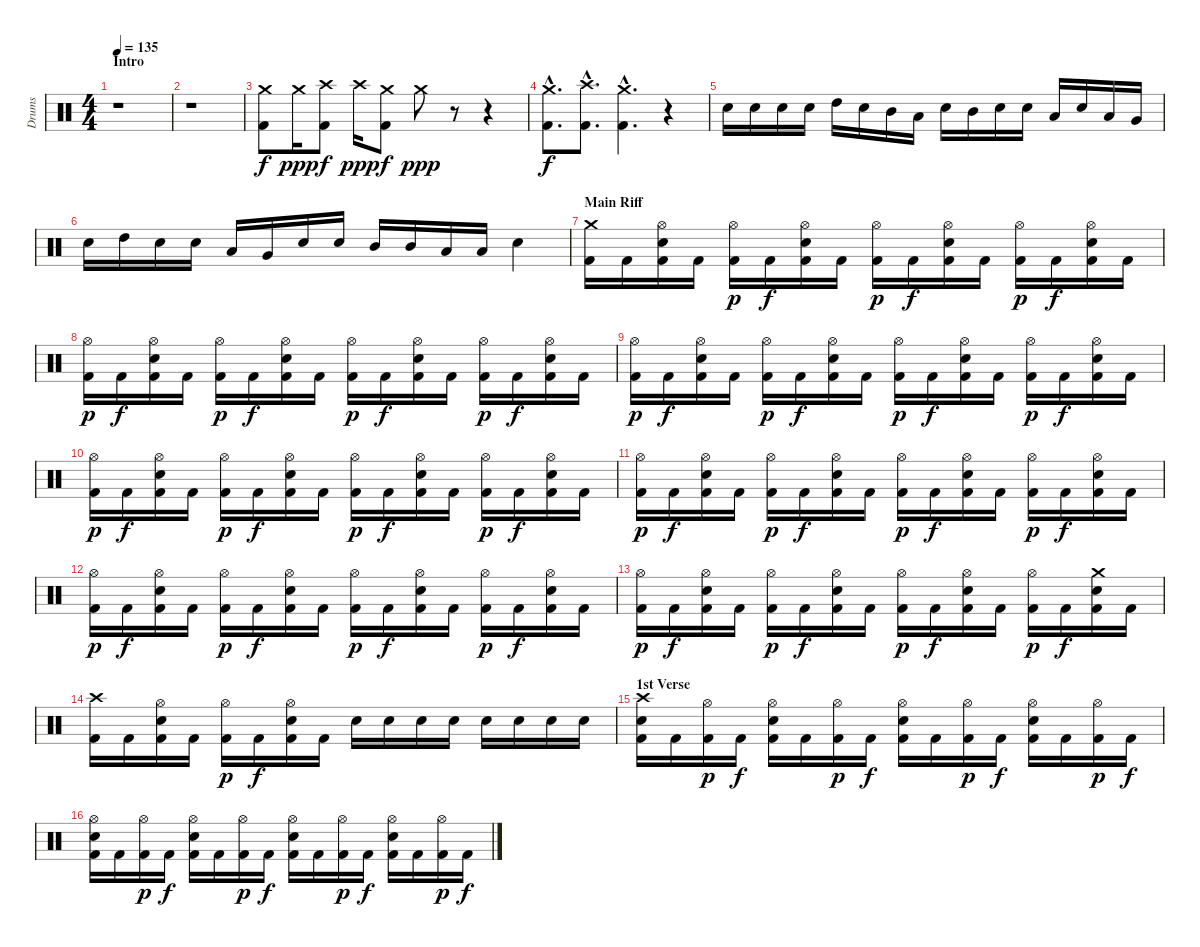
\track ("Drums" "Drums") {instrument percussion}
\staff {score}
\articulation defaults
\ts (4 4)
\section ("" "Intro")
\tempo 135
\clef neutral
\ks c
r.1{dy f} |
r.1 |
("Crash medium (hit)" "Kick (hit) 2").8 "Crash medium (hit)".16{dy ppp} ("Crash high (hit)" "Kick (hit) 2").8{dy f} "Crash high (hit)".16{dy ppp} ("Crash medium (hit)" "Kick (hit) 2").8{dy f} "Crash medium (hit)".8{dy ppp} r.8 r.4 |
("Crash medium (hit)"{hac} "Kick (hit) 2"{hac}).8{d dy f} ("Crash high (hit)"{hac} "Kick (hit) 2"{hac}).8{d} ("Crash medium (hit)"{hac} "Kick (hit) 2"{hac}).4{d} r.4 |
"Snare (hit) 2".16 "Snare (hit) 2".16 "Snare (hit) 2".16 "Snare (hit) 2".16 "High Tom (hit)".16 "Snare (hit) 2".16 "Mid Tom (hit)".16 "Low Tom (hit)".16 "Snare (hit) 2".16 "Mid Tom (hit)".16 "Snare (hit) 2".16 "Snare (hit) 2".16 "Low Tom (hit)".16 "Snare (hit) 2".16 "Low Tom (hit)".16 "Very Low Tom (hit)".16 |
"Snare (hit) 2".16 "High Tom (hit)".16 "Snare (hit) 2".16 "Snare (hit) 2".16 "Low Tom (hit)".16 "Very Low Tom (hit)".16 "Snare (hit) 2".16 "Snare (hit) 2".16 "Mid Tom (hit)".16 "Mid Tom (hit)".16 "Low Tom (hit)".16 "Low Tom (hit)".16 "Snare (hit) 2".4 |
\section ("" "Main Riff")
("Crash medium (hit)" "Kick (hit) 2").16 "Kick (hit) 2".16 ("Hi-Hat (open)" "Snare (hit) 2" "Kick (hit) 2").16 "Kick (hit) 2".16 ("Hi-Hat (open)" "Kick (hit) 2").16{dy p} "Kick (hit) 2".16{dy f} ("Hi-Hat (open)" "Snare (hit) 2" "Kick (hit) 2").16 "Kick (hit) 2".16 ("Hi-Hat (open)" "Kick (hit) 2").16{dy p} "Kick (hit) 2".16{dy f} ("Hi-Hat (open)" "Snare (hit) 2" "Kick (hit) 2").16 "Kick (hit) 2".16 ("Hi-Hat (open)" "Kick (hit) 2").16{dy p} "Kick (hit) 2".16{dy f} ("Hi-Hat (open)" "Snare (hit) 2" "Kick (hit) 2").16 "Kick (hit) 2".16 |
("Hi-Hat (open)" "Kick (hit) 2").16{dy p} "Kick (hit) 2".16{dy f} ("Hi-Hat (open)" "Snare (hit) 2" "Kick (hit) 2").16 "Kick (hit) 2".16 ("Hi-Hat (open)" "Kick (hit) 2").16{dy p} "Kick (hit) 2".16{dy f} ("Hi-Hat (open)" "Snare (hit) 2" "Kick (hit) 2").16 "Kick (hit) 2".16 ("Hi-Hat (open)" "Kick (hit) 2").16{dy p} "Kick (hit) 2".16{dy f} ("Hi-Hat (open)" "Snare (hit) 2" "Kick (hit) 2").16 "Kick (hit) 2".16 ("Hi-Hat (open)" "Kick (hit) 2").16{dy p} "Kick (hit) 2".16{dy f} ("Hi-Hat (open)" "Snare (hit) 2" "Kick (hit) 2").16 "Kick (hit) 2".16 |
("Hi-Hat (open)" "Kick (hit) 2").16{dy p} "Kick (hit) 2".16{dy f} ("Hi-Hat (open)" "Snare (hit) 2" "Kick (hit) 2").16 "Kick (hit) 2".16 ("Hi-Hat (open)" "Kick (hit) 2").16{dy p} "Kick (hit) 2".16{dy f} ("Hi-Hat (open)" "Snare (hit) 2" "Kick (hit) 2").16 "Kick (hit) 2".16 ("Hi-Hat (open)" "Kick (hit) 2").16{dy p} "Kick (hit) 2".16{dy f} ("Hi-Hat (open)" "Snare (hit) 2" "Kick (hit) 2").16 "Kick (hit) 2".16 ("Hi-Hat (open)" "Kick (hit) 2").16{dy p} "Kick (hit) 2".16{dy f} ("Hi-Hat (open)" "Snare (hit) 2" "Kick (hit) 2").16 "Kick (hit) 2".16 |
("Hi-Hat (open)" "Kick (hit) 2").16{dy p} "Kick (hit) 2".16{dy f} ("Hi-Hat (open)" "Snare (hit) 2" "Kick (hit) 2").16 "Kick (hit) 2".16 ("Hi-Hat (open)" "Kick (hit) 2").16{dy p} "Kick (hit) 2".16{dy f} ("Hi-Hat (open)" "Snare (hit) 2" "Kick (hit) 2").16 "Kick (hit) 2".16 ("Hi-Hat (open)" "Kick (hit) 2").16{dy p} "Kick (hit) 2".16{dy f} ("Hi-Hat (open)" "Snare (hit) 2" "Kick (hit) 2").16 "Kick (hit) 2".16 ("Hi-Hat (open)" "Kick (hit) 2").16{dy p} "Kick (hit) 2".16{dy f} ("Hi-Hat (open)" "Snare (hit) 2" "Kick (hit) 2").16 "Kick (hit) 2".16 |
("Hi-Hat (open)" "Kick (hit) 2").16{dy p} "Kick (hit) 2".16{dy f} ("Hi-Hat (open)" "Snare (hit) 2" "Kick (hit) 2").16 "Kick (hit) 2".16 ("Hi-Hat (open)" "Kick (hit) 2").16{dy p} "Kick (hit) 2".16{dy f} ("Hi-Hat (open)" "Snare (hit) 2" "Kick (hit) 2").16 "Kick (hit) 2".16 ("Hi-Hat (open)" "Kick (hit) 2").16{dy p} "Kick (hit) 2".16{dy f} ("Hi-Hat (open)" "Snare (hit) 2" "Kick (hit) 2").16 "Kick (hit) 2".16 ("Hi-Hat (open)" "Kick (hit) 2").16{dy p} "Kick (hit) 2".16{dy f} ("Hi-Hat (open)" "Snare (hit) 2" "Kick (hit) 2").16 "Kick (hit) 2".16 |
("Hi-Hat (open)" "Kick (hit) 2").16{dy p} "Kick (hit) 2".16{dy f} ("Hi-Hat (open)" "Snare (hit) 2" "Kick (hit) 2").16 "Kick (hit) 2".16 ("Hi-Hat (open)" "Kick (hit) 2").16{dy p} "Kick (hit) 2".16{dy f} ("Hi-Hat (open)" "Snare (hit) 2" "Kick (hit) 2").16 "Kick (hit) 2".16 ("Hi-Hat (open)" "Kick (hit) 2").16{dy p} "Kick (hit) 2".16{dy f} ("Hi-Hat (open)" "Snare (hit) 2" "Kick (hit) 2").16 "Kick (hit) 2".16 ("Hi-Hat (open)" "Kick (hit) 2").16{dy p} "Kick (hit) 2".16{dy f} ("Hi-Hat (open)" "Snare (hit) 2" "Kick (hit) 2").16 "Kick (hit) 2".16 |
("Hi-Hat (open)" "Kick (hit) 2").16{dy p} "Kick (hit) 2".16{dy f} ("Hi-Hat (open)" "Snare (hit) 2" "Kick (hit) 2").16 "Kick (hit) 2".16 ("Hi-Hat (open)" "Kick (hit) 2").16{dy p} "Kick (hit) 2".16{dy f} ("Hi-Hat (open)" "Snare (hit) 2" "Kick (hit) 2").16 "Kick (hit) 2".16 ("Hi-Hat (open)" "Kick (hit) 2").16{dy p} "Kick (hit) 2".16{dy f} ("Hi-Hat (open)" "Snare (hit) 2" "Kick (hit) 2").16 "Kick (hit) 2".16 ("Hi-Hat (open)" "Kick (hit) 2").16{dy p} "Kick (hit) 2".16{dy f} ("Crash medium (hit)" "Snare (hit) 2" "Kick (hit) 2").16 "Kick (hit) 2".16 |
("Crash high (hit)" "Kick (hit) 2").16 "Kick (hit) 2".16 ("Hi-Hat (open)" "Snare (hit) 2" "Kick (hit) 2").16 "Kick (hit) 2".16 ("Hi-Hat (open)" "Kick (hit) 2").16{dy p} "Kick (hit) 2".16{dy f} ("Hi-Hat (open)" "Snare (hit) 2" "Kick (hit) 2").16 "Kick (hit) 2".16 "Snare (hit) 2".16 "Snare (hit) 2".16 "Snare (hit) 2".16 "Snare (hit) 2".16 "Snare (hit) 2".16 "Snare (hit) 2".16 "Snare (hit) 2".16 "Snare (hit) 2".16 |
\section ("" "1st Verse")
("Crash high (hit)" "Snare (hit) 2" "Kick (hit) 2").16 "Kick (hit) 2".16 ("Hi-Hat (open)" "Kick (hit) 2").16{dy p} "Kick (hit) 2".16{dy f} ("Hi-Hat (open)" "Snare (hit) 2" "Kick (hit) 2").16 "Kick (hit) 2".16 ("Hi-Hat (open)" "Kick (hit) 2").16{dy p} "Kick (hit) 2".16{dy f} ("Hi-Hat (open)" "Snare (hit) 2" "Kick (hit) 2").16 "Kick (hit) 2".16 ("Hi-Hat (open)" "Kick (hit) 2").16{dy p} "Kick (hit) 2".16{dy f} ("Hi-Hat (open)" "Snare (hit) 2" "Kick (hit) 2").16 "Kick (hit) 2".16 ("Hi-Hat (open)" "Kick (hit) 2").16{dy p} "Kick (hit) 2".16{dy f} |
("Hi-Hat (open)" "Snare (hit) 2" "Kick (hit) 2").16 "Kick (hit) 2".16 ("Hi-Hat (open)" "Kick (hit) 2").16{dy p} "Kick (hit) 2".16{dy f} ("Hi-Hat (open)" "Snare (hit) 2" "Kick (hit) 2").16 "Kick (hit) 2".16 ("Hi-Hat (open)" "Kick (hit) 2").16{dy p} "Kick (hit) 2".16{dy f} ("Hi-Hat (open)" "Snare (hit) 2" "Kick (hit) 2").16 "Kick (hit) 2".16 ("Hi-Hat (open)" "Kick (hit) 2").16{dy p} "Kick (hit) 2".16{dy f} ("Hi-Hat (open)" "Snare (hit) 2" "Kick (hit) 2").16 "Kick (hit) 2".16 ("Hi-Hat (open)" "Kick (hit) 2").16{dy p} "Kick (hit) 2".16{dy f}
